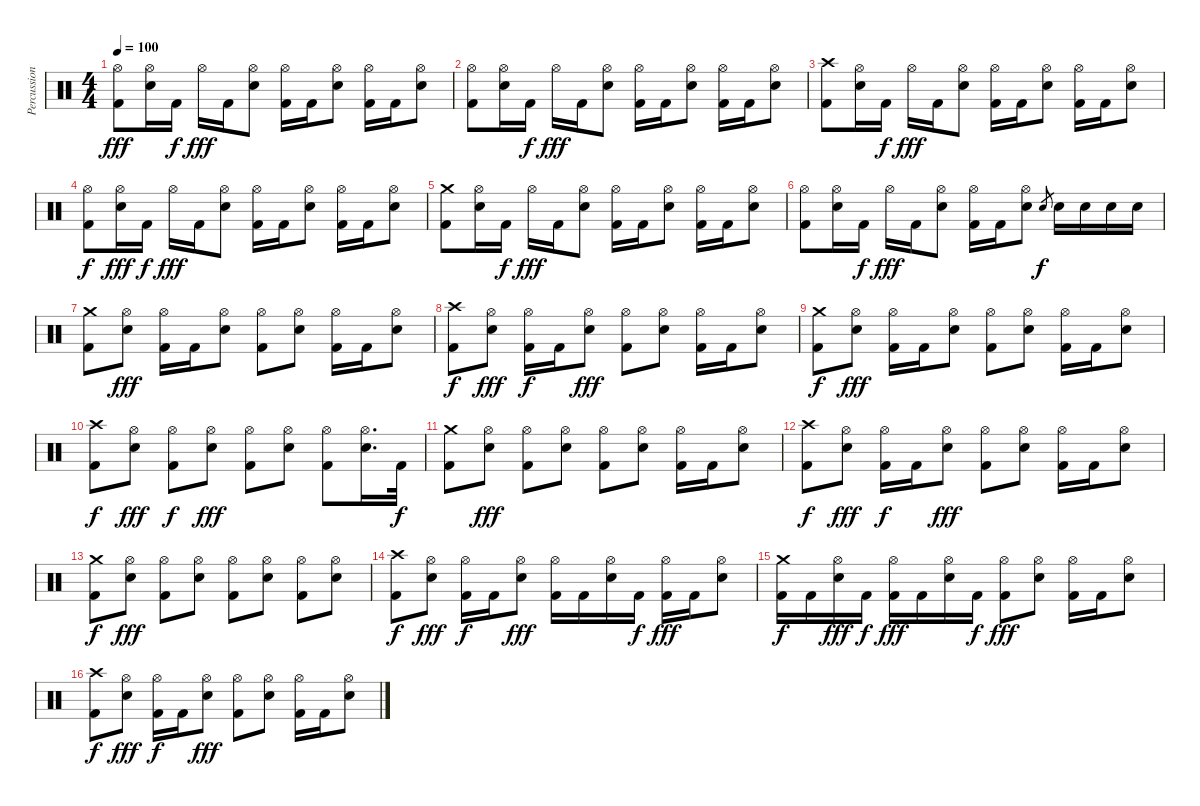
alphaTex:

\track ("Percussion" "Percussion") {instrument percussion}
\staff {score}
\articulation defaults
\ts (4 4)
\tempo 100
\clef neutral
\ks c
("Hi-Hat (open)" "Kick (hit) 2").8{dy fff} ("Hi-Hat (open)" "Electric Snare (hit)").16 "Kick (hit) 2".16{dy f} "Hi-Hat (open)".16{dy fff} "Kick (hit) 2".16 ("Hi-Hat (open)" "Electric Snare (hit)").8 ("Hi-Hat (open)" "Kick (hit) 2").16 "Kick (hit) 2".16 ("Hi-Hat (open)" "Electric Snare (hit)").8 ("Hi-Hat (open)" "Kick (hit) 2").16 "Kick (hit) 2".16 ("Hi-Hat (open)" "Electric Snare (hit)").8 |
("Hi-Hat (open)" "Kick (hit) 2").8 ("Hi-Hat (open)" "Electric Snare (hit)").16 "Kick (hit) 2".16{dy f} "Hi-Hat (open)".16{dy fff} "Kick (hit) 2".16 ("Hi-Hat (open)" "Electric Snare (hit)").8 ("Hi-Hat (open)" "Kick (hit) 2").16 "Kick (hit) 2".16 ("Hi-Hat (open)" "Electric Snare (hit)").8 ("Hi-Hat (open)" "Kick (hit) 2").16 "Kick (hit) 2".16 ("Hi-Hat (open)" "Electric Snare (hit)").8 |
("Crash high (hit)" "Kick (hit) 2").8 ("Hi-Hat (open)" "Electric Snare (hit)").16 "Kick (hit) 2".16{dy f} "Hi-Hat (open)".16{dy fff} "Kick (hit) 2".16 ("Hi-Hat (open)" "Electric Snare (hit)").8 ("Hi-Hat (open)" "Kick (hit) 2").16 "Kick (hit) 2".16 ("Hi-Hat (open)" "Electric Snare (hit)").8 ("Hi-Hat (open)" "Kick (hit) 2").16 "Kick (hit) 2".16 ("Hi-Hat (open)" "Electric Snare (hit)").8 |
("Hi-Hat (open)" "Kick (hit) 2").8{dy f} ("Hi-Hat (open)" "Electric Snare (hit)").16{dy fff} "Kick (hit) 2".16{dy f} "Hi-Hat (open)".16{dy fff} "Kick (hit) 2".16 ("Hi-Hat (open)" "Electric Snare (hit)").8 ("Hi-Hat (open)" "Kick (hit) 2").16 "Kick (hit) 2".16 ("Hi-Hat (open)" "Electric Snare (hit)").8 ("Hi-Hat (open)" "Kick (hit) 2").16 "Kick (hit) 2".16 ("Hi-Hat (open)" "Electric Snare (hit)").8 |
("Crash medium (hit)" "Kick (hit) 2").8 ("Hi-Hat (open)" "Electric Snare (hit)").16 "Kick (hit) 2".16{dy f} "Hi-Hat (open)".16{dy fff} "Kick (hit) 2".16 ("Hi-Hat (open)" "Electric Snare (hit)").8 ("Hi-Hat (open)" "Kick (hit) 2").16 "Kick (hit) 2".16 ("Hi-Hat (open)" "Electric Snare (hit)").8 ("Hi-Hat (open)" "Kick (hit) 2").16 "Kick (hit) 2".16 ("Hi-Hat (open)" "Electric Snare (hit)").8 |
("Hi-Hat (open)" "Kick (hit) 2").8 ("Hi-Hat (open)" "Electric Snare (hit)").16 "Kick (hit) 2".16{dy f} "Hi-Hat (open)".16{dy fff} "Kick (hit) 2".16 ("Hi-Hat (open)" "Electric Snare (hit)").8 ("Hi-Hat (open)" "Kick (hit) 2").16 "Kick (hit) 2".16 ("Hi-Hat (open)" "Electric Snare (hit)").8 "Electric Snare (hit)".8{gr dy f} "Electric Snare (hit)".16 "Electric Snare (hit)".16 "Electric Snare (hit)".16 "Electric Snare (hit)".16 |
("Crash medium (hit)" "Kick (hit) 2").8 ("Hi-Hat (open)" "Electric Snare (hit)").8{dy fff} ("Hi-Hat (open)" "Kick (hit) 2").16 "Kick (hit) 2".16 ("Hi-Hat (open)" "Electric Snare (hit)").8 ("Hi-Hat (open)" "Kick (hit) 2").8 ("Hi-Hat (open)" "Electric Snare (hit)").8 ("Hi-Hat (open)" "Kick (hit) 2").16 "Kick (hit) 2".16 ("Hi-Hat (open)" "Electric Snare (hit)").8 |
("Crash high (hit)" "Kick (hit) 2").8{dy f} ("Hi-Hat (open)" "Electric Snare (hit)").8{dy fff} ("Hi-Hat (open)" "Kick (hit) 2").16{dy f} "Kick (hit) 2".16 ("Hi-Hat (open)" "Electric Snare (hit)").8{dy fff} ("Hi-Hat (open)" "Kick (hit) 2").8 ("Hi-Hat (open)" "Electric Snare (hit)").8 ("Hi-Hat (open)" "Kick (hit) 2").16 "Kick (hit) 2".16 ("Hi-Hat (open)" "Electric Snare (hit)").8 |
("Crash medium (hit)" "Kick (hit) 2").8{dy f} ("Hi-Hat (open)" "Electric Snare (hit)").8{dy fff} ("Hi-Hat (open)" "Kick (hit) 2").16 "Kick (hit) 2".16 ("Hi-Hat (open)" "Electric Snare (hit)").8 ("Hi-Hat (open)" "Kick (hit) 2").8 ("Hi-Hat (open)" "Electric Snare (hit)").8 ("Hi-Hat (open)" "Kick (hit) 2").16 "Kick (hit) 2".16 ("Hi-Hat (open)" "Electric Snare (hit)").8 |
("Crash high (hit)" "Kick (hit) 2").8{dy f} ("Hi-Hat (open)" "Electric Snare (hit)").8{dy fff} ("Hi-Hat (open)" "Kick (hit) 2").8{dy f} ("Hi-Hat (open)" "Electric Snare (hit)").8{dy fff} ("Hi-Hat (open)" "Kick (hit) 2").8 ("Hi-Hat (open)" "Electric Snare (hit)").8 ("Hi-Hat (open)" "Kick (hit) 2").8 ("Hi-Hat (open)" "Electric Snare (hit)").16{d} "Kick (hit) 2".32{dy f} |
("Crash medium (hit)" "Kick (hit) 2").8 ("Hi-Hat (open)" "Electric Snare (hit)").8{dy fff} ("Hi-Hat (open)" "Kick (hit) 2").8 ("Hi-Hat (open)" "Electric Snare (hit)").8 ("Hi-Hat (open)" "Kick (hit) 2").8 ("Hi-Hat (open)" "Electric Snare (hit)").8 ("Hi-Hat (open)" "Kick (hit) 2").16 "Kick (hit) 2".16 ("Hi-Hat (open)" "Electric Snare (hit)").8 |
("Crash high (hit)" "Kick (hit) 2").8{dy f} ("Hi-Hat (open)" "Electric Snare (hit)").8{dy fff} ("Hi-Hat (open)" "Kick (hit) 2").16{dy f} "Kick (hit) 2".16 ("Hi-Hat (open)" "Electric Snare (hit)").8{dy fff} ("Hi-Hat (open)" "Kick (hit) 2").8 ("Hi-Hat (open)" "Electric Snare (hit)").8 ("Hi-Hat (open)" "Kick (hit) 2").16 "Kick (hit) 2".16 ("Hi-Hat (open)" "Electric Snare (hit)").8 |
("Crash medium (hit)" "Kick (hit) 2").8{dy f} ("Hi-Hat (open)" "Electric Snare (hit)").8{dy fff} ("Hi-Hat (open)" "Kick (hit) 2").8 ("Hi-Hat (open)" "Electric Snare (hit)").8 ("Hi-Hat (open)" "Kick (hit) 2").8 ("Hi-Hat (open)" "Electric Snare (hit)").8 ("Hi-Hat (open)" "Kick (hit) 2").8 ("Hi-Hat (open)" "Electric Snare (hit)").8 |
("Crash high (hit)" "Kick (hit) 2").8{dy f} ("Hi-Hat (open)" "Electric Snare (hit)").8{dy fff} ("Hi-Hat (open)" "Kick (hit) 2").16{dy f} "Kick (hit) 2".16 ("Hi-Hat (open)" "Electric Snare (hit)").8{dy fff} ("Hi-Hat (open)" "Kick (hit) 2").16 "Kick (hit) 2".16 ("Hi-Hat (open)" "Electric Snare (hit)").16 "Kick (hit) 2".16{dy f} ("Hi-Hat (open)" "Kick (hit) 2").16{dy fff} "Kick (hit) 2".16 ("Hi-Hat (open)" "Electric Snare (hit)").8 |
("Crash medium (hit)" "Kick (hit) 2").16{dy f} "Kick (hit) 2".16 ("Hi-Hat (open)" "Electric Snare (hit)").16{dy fff} "Kick (hit) 2".16{dy f} ("Hi-Hat (open)" "Kick (hit) 2").16{dy fff} "Kick (hit) 2".16 ("Hi-Hat (open)" "Electric Snare (hit)").16 "Kick (hit) 2".16{dy f} ("Hi-Hat (open)" "Kick (hit) 2").8{dy fff} ("Hi-Hat (open)" "Electric Snare (hit)").8 ("Hi-Hat (open)" "Kick (hit) 2").16 "Kick (hit) 2".16 ("Hi-Hat (open)" "Electric Snare (hit)").8 |
("Crash high (hit)" "Kick (hit) 2").8{dy f} ("Hi-Hat (open)" "Electric Snare (hit)").8{dy fff} ("Hi-Hat (open)" "Kick (hit) 2").16{dy f} "Kick (hit) 2".16 ("Hi-Hat (open)" "Electric Snare (hit)").8{dy fff} ("Hi-Hat (open)" "Kick (hit) 2").8 ("Hi-Hat (open)" "Electric Snare (hit)").8 ("Hi-Hat (open)" "Kick (hit) 2").16 "Kick (hit) 2".16 ("Hi-Hat (open)" "Electric Snare (hit)").8
